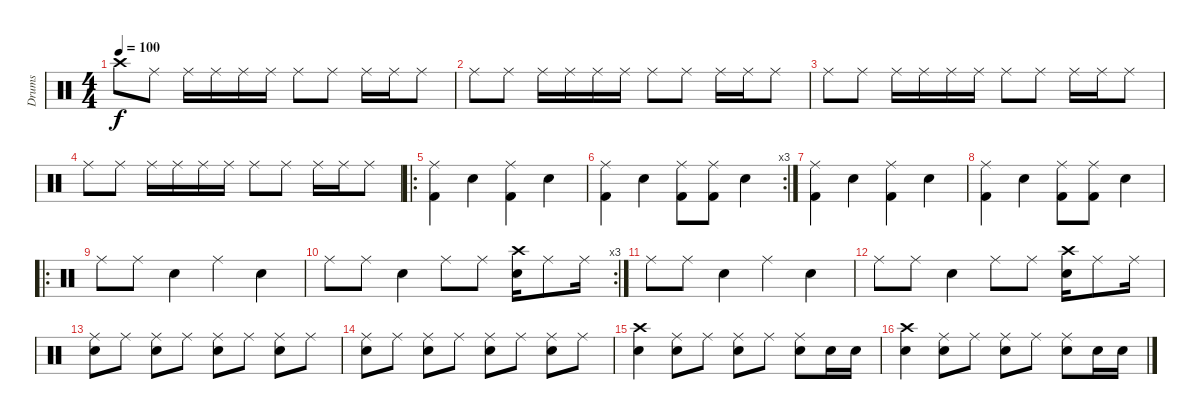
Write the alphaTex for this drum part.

\track ("Drums" "Drums") {instrument percussion}
\staff {score}
\articulation defaults
\ts (4 4)
\tempo 100
\clef neutral
\ks c "Crash high (hit)".8{dy f} "Ride (middle)".8 "Ride (middle)".16 "Ride (middle)".16 "Ride (middle)".16 "Ride (middle)".16 "Ride (middle)".8 "Ride (middle)".8 "Ride (middle)".16 "Ride (middle)".16 "Ride (middle)".8
|
"Ride (middle)".8 "Ride (middle)".8 "Ride (middle)".16 "Ride (middle)".16 "Ride (middle)".16 "Ride (middle)".16 "Ride (middle)".8 "Ride (middle)".8 "Ride (middle)".16 "Ride (middle)".16 "Ride (middle)".8 |
"Ride (middle)".8 "Ride (middle)".8 "Ride (middle)".16 "Ride (middle)".16 "Ride (middle)".16 "Ride (middle)".16 "Ride (middle)".8 "Ride (middle)".8 "Ride (middle)".16 "Ride (middle)".16 "Ride (middle)".8 |
"Ride (middle)".8 "Ride (middle)".8 "Ride (middle)".16 "Ride (middle)".16 "Ride (middle)".16 "Ride (middle)".16 "Ride (middle)".8 "Ride (middle)".8 "Ride (middle)".16 "Ride (middle)".16 "Ride (middle)".8 |
\ro
("Ride (middle)" "Kick (hit) 2").4 "Snare (hit) 2".4 ("Ride (middle)" "Kick (hit) 2").4 "Snare (hit) 2".4 |
\rc 3
("Ride (middle)" "Kick (hit) 2").4 "Snare (hit) 2".4 ("Ride (middle)" "Kick (hit) 2").8 ("Ride (middle)" "Kick (hit) 2").8 "Snare (hit) 2".4 |
("Ride (middle)" "Kick (hit) 2").4 "Snare (hit) 2".4 ("Ride (middle)" "Kick (hit) 2").4 "Snare (hit) 2".4 |
("Ride (middle)" "Kick (hit) 2").4 "Snare (hit) 2".4 ("Ride (middle)" "Kick (hit) 2").8 ("Ride (middle)" "Kick (hit) 2").8 "Snare (hit) 2".4 |
\ro "Ride (middle)".8 "Ride (middle)".8 "Snare (hit) 2".4 "Ride (middle)".4 "Snare (hit) 2".4
|
\rc 3 "Ride (middle)".8 "Ride (middle)".8 "Snare (hit) 2".4 "Ride (middle)".8 "Ride (middle)".8
("Crash high (hit)" "Snare (hit) 2").16 "Ride (middle)".8 "Ride (middle)".16 |
"Ride (middle)".8 "Ride (middle)".8 "Snare (hit) 2".4 "Ride (middle)".4 "Snare (hit) 2".4 |
"Ride (middle)".8 "Ride (middle)".8 "Snare (hit) 2".4 "Ride (middle)".8 "Ride (middle)".8 ("Crash high (hit)" "Snare (hit) 2").16 "Ride (middle)".8 "Ride (middle)".16 |
("Ride (middle)" "Snare (hit) 2").8 "Ride (middle)".8 ("Ride (middle)" "Snare (hit) 2").8 "Ride (middle)".8 ("Ride (middle)" "Snare (hit) 2").8 "Ride (middle)".8 ("Ride (middle)" "Snare (hit) 2").8 "Ride (middle)".8 |
("Ride (middle)" "Snare (hit) 2").8 "Ride (middle)".8 ("Ride (middle)" "Snare (hit) 2").8 "Ride (middle)".8 ("Ride (middle)" "Snare (hit) 2").8 "Ride (middle)".8 ("Ride (middle)" "Snare (hit) 2").8 "Ride (middle)".8 |
("Crash high (hit)" "Snare (hit) 2").4 ("Ride (middle)" "Snare (hit) 2").8 "Ride (middle)".8 ("Ride (middle)" "Snare (hit) 2").8 "Ride (middle)".8 ("Ride (middle)" "Snare (hit) 2").8 "Snare (hit) 2".16 "Snare (hit) 2".16 |
("Crash high (hit)" "Snare (hit) 2").4 ("Ride (middle)" "Snare (hit) 2").8 "Ride (middle)".8 ("Ride (middle)" "Snare (hit) 2").8 "Ride (middle)".8 ("Ride (middle)" "Snare (hit) 2").8 "Snare (hit) 2".16 "Snare (hit) 2".16
